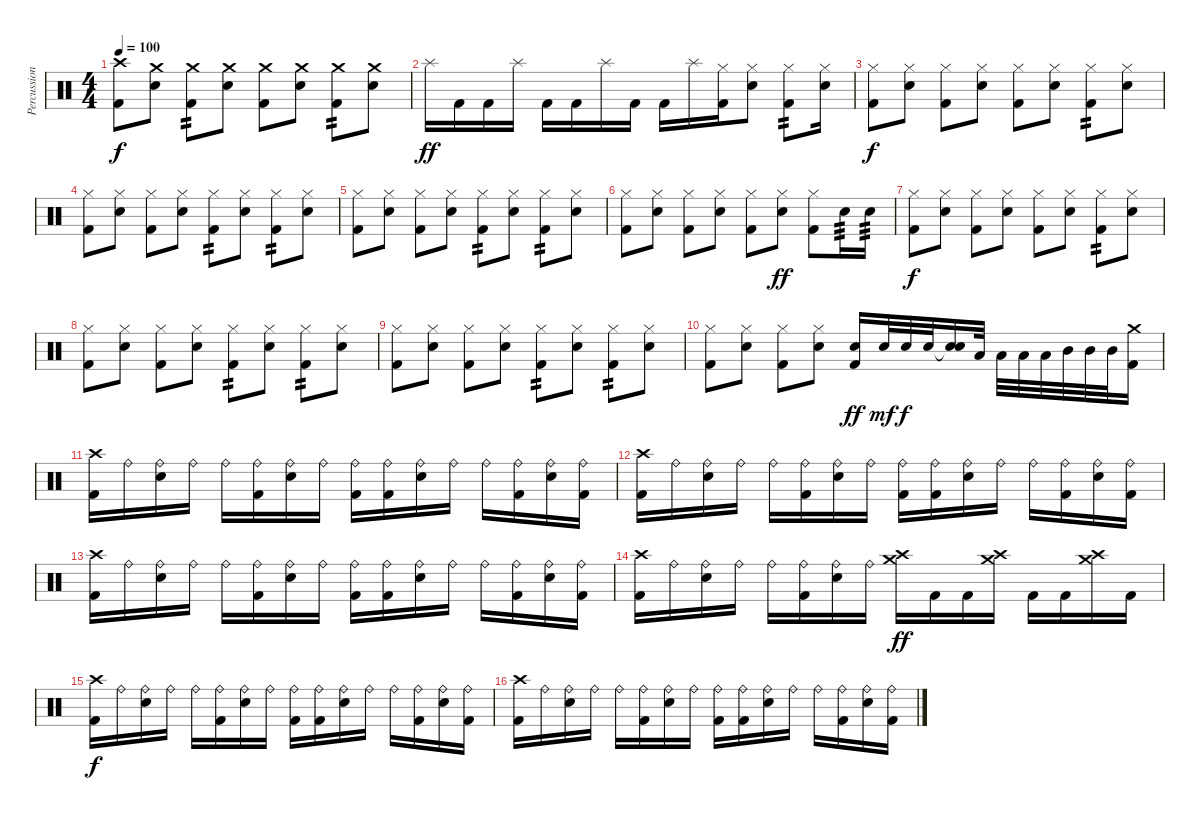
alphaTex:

\track ("Percussion" "Percussion") {instrument percussion}
\staff {score}
\articulation defaults
\ts (4 4)
\tempo 100
\clef neutral
\ks c
("Crash high (hit)" "Kick (hit) 2").8{dy f} ("Crash medium (hit)" "Electric Snare (hit)").8 ("Crash medium (hit)" "Kick (hit) 2").8{tp 2} ("Crash medium (hit)" "Electric Snare (hit)").8 ("Crash medium (hit)" "Kick (hit) 2").8 ("Crash medium (hit)" "Electric Snare (hit)").8 ("Crash medium (hit)" "Kick (hit) 2").8{tp 2} ("Crash medium (hit)" "Electric Snare (hit)").8 |
"Splash (hit)".16{dy ff} "Kick (hit) 2".16 "Kick (hit) 2".16 "Splash (hit)".16 "Kick (hit) 2".16 "Kick (hit) 2".16 "Splash (hit)".16 "Kick (hit) 2".16 "Kick (hit) 2".16 "Splash (hit)".16 ("Hi-Hat (closed)" "Kick (hit) 2").16 ("Hi-Hat (closed)" "Electric Snare (hit)").8 ("Hi-Hat (closed)" "Kick (hit) 2").8{tp 2} ("Hi-Hat (closed)" "Electric Snare (hit)").16 |
("Hi-Hat (closed)" "Kick (hit) 2").8{dy f} ("Hi-Hat (closed)" "Electric Snare (hit)").8 ("Hi-Hat (closed)" "Kick (hit) 2").8 ("Hi-Hat (closed)" "Electric Snare (hit)").8 ("Hi-Hat (closed)" "Kick (hit) 2").8 ("Hi-Hat (closed)" "Electric Snare (hit)").8 ("Hi-Hat (closed)" "Kick (hit) 2").8{tp 2} ("Hi-Hat (closed)" "Electric Snare (hit)").8 |
("Hi-Hat (closed)" "Kick (hit) 2").8 ("Hi-Hat (closed)" "Electric Snare (hit)").8 ("Hi-Hat (closed)" "Kick (hit) 2").8 ("Hi-Hat (closed)" "Electric Snare (hit)").8 ("Hi-Hat (closed)" "Kick (hit) 2").8{tp 2} ("Hi-Hat (closed)" "Electric Snare (hit)").8 ("Hi-Hat (closed)" "Kick (hit) 2").8{tp 2} ("Hi-Hat (closed)" "Electric Snare (hit)").8 |
("Hi-Hat (closed)" "Kick (hit) 2").8 ("Hi-Hat (closed)" "Electric Snare (hit)").8 ("Hi-Hat (closed)" "Kick (hit) 2").8 ("Hi-Hat (closed)" "Electric Snare (hit)").8 ("Hi-Hat (closed)" "Kick (hit) 2").8{tp 2} ("Hi-Hat (closed)" "Electric Snare (hit)").8 ("Hi-Hat (closed)" "Kick (hit) 2").8{tp 2} ("Hi-Hat (closed)" "Electric Snare (hit)").8 |
("Hi-Hat (closed)" "Kick (hit) 2").8 ("Hi-Hat (closed)" "Electric Snare (hit)").8 ("Hi-Hat (closed)" "Kick (hit) 2").8 ("Hi-Hat (closed)" "Electric Snare (hit)").8 ("Hi-Hat (closed)" "Kick (hit) 2").8 ("Hi-Hat (closed)" "Electric Snare (hit)").8{dy ff} ("Hi-Hat (closed)" "Kick (hit) 2").8 "Electric Snare (hit)".16{tp 3} "Electric Snare (hit)".16{tp 3} |
("Hi-Hat (closed)" "Kick (hit) 2").8{dy f} ("Hi-Hat (closed)" "Electric Snare (hit)").8 ("Hi-Hat (closed)" "Kick (hit) 2").8 ("Hi-Hat (closed)" "Electric Snare (hit)").8 ("Hi-Hat (closed)" "Kick (hit) 2").8 ("Hi-Hat (closed)" "Electric Snare (hit)").8 ("Hi-Hat (closed)" "Kick (hit) 2").8{tp 2} ("Hi-Hat (closed)" "Electric Snare (hit)").8 |
("Hi-Hat (closed)" "Kick (hit) 2").8 ("Hi-Hat (closed)" "Electric Snare (hit)").8 ("Hi-Hat (closed)" "Kick (hit) 2").8 ("Hi-Hat (closed)" "Electric Snare (hit)").8 ("Hi-Hat (closed)" "Kick (hit) 2").8{tp 2} ("Hi-Hat (closed)" "Electric Snare (hit)").8 ("Hi-Hat (closed)" "Kick (hit) 2").8{tp 2} ("Hi-Hat (closed)" "Electric Snare (hit)").8 |
("Hi-Hat (closed)" "Kick (hit) 2").8 ("Hi-Hat (closed)" "Electric Snare (hit)").8 ("Hi-Hat (closed)" "Kick (hit) 2").8 ("Hi-Hat (closed)" "Electric Snare (hit)").8 ("Hi-Hat (closed)" "Kick (hit) 2").8{tp 2} ("Hi-Hat (closed)" "Electric Snare (hit)").8 ("Hi-Hat (closed)" "Kick (hit) 2").8{tp 2} ("Hi-Hat (closed)" "Electric Snare (hit)").8 |
("Hi-Hat (closed)" "Kick (hit) 2").8 ("Hi-Hat (closed)" "Electric Snare (hit)").8 ("Hi-Hat (closed)" "Kick (hit) 2").8 ("Hi-Hat (closed)" "Electric Snare (hit)").8 ("Electric Snare (hit)" "Kick (hit) 2").16{dy ff} "Electric Snare (hit)".32{dy mf} "Electric Snare (hit)".32{dy f} "Electric Snare (hit)".32 ("Snare (hit)"{t} "Electric Snare (hit)").16 "Low Tom (hit)".32 "Low Tom (hit)".32 "Low Tom (hit)".32 "Low Tom (hit)".32 "Mid Tom (hit)".32 "Mid Tom (hit)".32 "Mid Tom (hit)".32 ("Crash medium (hit)" "Kick (hit) 2").16 |
("Crash high (hit)" "Kick (hit) 2").16 "Ride (bell)".16 ("Ride (bell)" "Electric Snare (hit)").16 "Ride (bell)".16 "Ride (bell)".16 ("Ride (bell)" "Kick (hit) 2").16 ("Ride (bell)" "Electric Snare (hit)").16 "Ride (bell)".16 ("Ride (bell)" "Kick (hit) 2").16 ("Ride (bell)" "Kick (hit) 2").16 ("Ride (bell)" "Electric Snare (hit)").16 "Ride (bell)".16 "Ride (bell)".16 ("Ride (bell)" "Kick (hit) 2").16 ("Ride (bell)" "Electric Snare (hit)").16 ("Ride (bell)" "Kick (hit) 2").16 |
("Crash high (hit)" "Kick (hit) 2").16 "Ride (bell)".16 ("Ride (bell)" "Electric Snare (hit)").16 "Ride (bell)".16 "Ride (bell)".16 ("Ride (bell)" "Kick (hit) 2").16 ("Ride (bell)" "Electric Snare (hit)").16 "Ride (bell)".16 ("Ride (bell)" "Kick (hit) 2").16 ("Ride (bell)" "Kick (hit) 2").16 ("Ride (bell)" "Electric Snare (hit)").16 "Ride (bell)".16 "Ride (bell)".16 ("Ride (bell)" "Kick (hit) 2").16 ("Ride (bell)" "Electric Snare (hit)").16 ("Ride (bell)" "Kick (hit) 2").16 |
("Crash high (hit)" "Kick (hit) 2").16 "Ride (bell)".16 ("Ride (bell)" "Electric Snare (hit)").16 "Ride (bell)".16 "Ride (bell)".16 ("Ride (bell)" "Kick (hit) 2").16 ("Ride (bell)" "Electric Snare (hit)").16 "Ride (bell)".16 ("Ride (bell)" "Kick (hit) 2").16 ("Ride (bell)" "Kick (hit) 2").16 ("Ride (bell)" "Electric Snare (hit)").16 "Ride (bell)".16 "Ride (bell)".16 ("Ride (bell)" "Kick (hit) 2").16 ("Ride (bell)" "Electric Snare (hit)").16 ("Ride (bell)" "Kick (hit) 2").16 |
("Crash high (hit)" "Kick (hit) 2").16 "Ride (bell)".16 ("Ride (bell)" "Electric Snare (hit)").16 "Ride (bell)".16 "Ride (bell)".16 ("Ride (bell)" "Kick (hit) 2").16 ("Ride (bell)" "Electric Snare (hit)").16 "Ride (bell)".16 ("Crash high (hit)" "Crash medium (hit)").16{dy ff} "Kick (hit) 2".16 "Kick (hit) 2".16 ("Crash high (hit)" "Crash medium (hit)").16 "Kick (hit) 2".16 "Kick (hit) 2".16 ("Crash high (hit)" "Crash medium (hit)").16 "Kick (hit) 2".16 |
("Crash high (hit)" "Kick (hit) 2").16{dy f} "Ride (bell)".16 ("Ride (bell)" "Electric Snare (hit)").16 "Ride (bell)".16 "Ride (bell)".16 ("Ride (bell)" "Kick (hit) 2").16 ("Ride (bell)" "Electric Snare (hit)").16 "Ride (bell)".16 ("Ride (bell)" "Kick (hit) 2").16 ("Ride (bell)" "Kick (hit) 2").16 ("Ride (bell)" "Electric Snare (hit)").16 "Ride (bell)".16 "Ride (bell)".16 ("Ride (bell)" "Kick (hit) 2").16 ("Ride (bell)" "Electric Snare (hit)").16 ("Ride (bell)" "Kick (hit) 2").16 |
("Crash high (hit)" "Kick (hit) 2").16 "Ride (bell)".16 ("Ride (bell)" "Electric Snare (hit)").16 "Ride (bell)".16 "Ride (bell)".16 ("Ride (bell)" "Kick (hit) 2").16 ("Ride (bell)" "Electric Snare (hit)").16 "Ride (bell)".16 ("Ride (bell)" "Kick (hit) 2").16 ("Ride (bell)" "Kick (hit) 2").16 ("Ride (bell)" "Electric Snare (hit)").16 "Ride (bell)".16 "Ride (bell)".16 ("Ride (bell)" "Kick (hit) 2").16 ("Ride (bell)" "Electric Snare (hit)").16 ("Ride (bell)" "Kick (hit) 2").16
